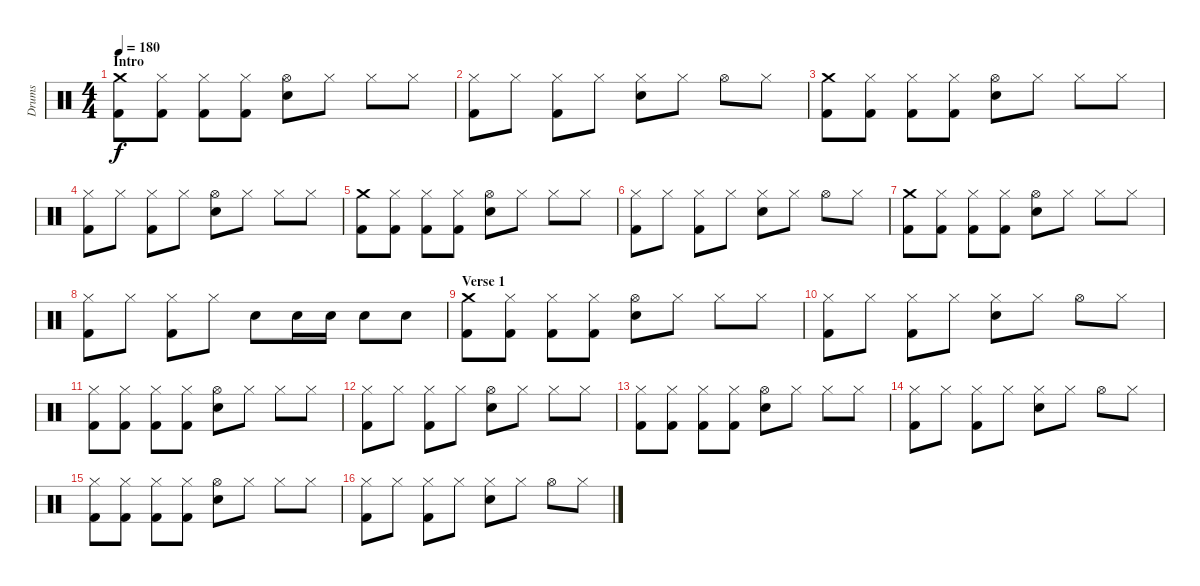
\track ("Drums" "Drums") {instrument percussion}
\staff {score}
\articulation defaults
\ts (4 4)
\section ("" "Intro")
\tempo 180
\clef neutral
\ks c
("Crash medium (hit)" "Kick (hit) 2").8{dy f} ("Hi-Hat (closed)" "Kick (hit) 2").8 ("Hi-Hat (closed)" "Kick (hit) 2").8 ("Hi-Hat (closed)" "Kick (hit) 2").8 ("Hi-Hat (open)" "Electric Snare (hit)").8 "Hi-Hat (closed)".8 "Hi-Hat (closed)".8 "Hi-Hat (closed)".8 |
("Hi-Hat (closed)" "Kick (hit) 2").8 "Hi-Hat (closed)".8 ("Hi-Hat (closed)" "Kick (hit) 2").8 "Hi-Hat (closed)".8 ("Hi-Hat (closed)" "Electric Snare (hit)").8 "Hi-Hat (closed)".8 "Hi-Hat (open)".8 "Hi-Hat (closed)".8 |
("Crash medium (hit)" "Kick (hit) 2").8 ("Hi-Hat (closed)" "Kick (hit) 2").8 ("Hi-Hat (closed)" "Kick (hit) 2").8 ("Hi-Hat (closed)" "Kick (hit) 2").8 ("Hi-Hat (open)" "Electric Snare (hit)").8 "Hi-Hat (closed)".8 "Hi-Hat (closed)".8 "Hi-Hat (closed)".8 |
("Hi-Hat (closed)" "Kick (hit) 2").8 "Hi-Hat (closed)".8 ("Hi-Hat (closed)" "Kick (hit) 2").8 "Hi-Hat (closed)".8 ("Hi-Hat (open)" "Electric Snare (hit)").8 "Hi-Hat (closed)".8 "Hi-Hat (closed)".8 "Hi-Hat (closed)".8 |
("Crash medium (hit)" "Kick (hit) 2").8 ("Hi-Hat (closed)" "Kick (hit) 2").8 ("Hi-Hat (closed)" "Kick (hit) 2").8 ("Hi-Hat (closed)" "Kick (hit) 2").8 ("Hi-Hat (open)" "Electric Snare (hit)").8 "Hi-Hat (closed)".8 "Hi-Hat (closed)".8 "Hi-Hat (closed)".8 |
("Hi-Hat (closed)" "Kick (hit) 2").8 "Hi-Hat (closed)".8 ("Hi-Hat (closed)" "Kick (hit) 2").8 "Hi-Hat (closed)".8 ("Hi-Hat (closed)" "Electric Snare (hit)").8 "Hi-Hat (closed)".8 "Hi-Hat (open)".8 "Hi-Hat (closed)".8 |
("Crash medium (hit)" "Kick (hit) 2").8 ("Hi-Hat (closed)" "Kick (hit) 2").8 ("Hi-Hat (closed)" "Kick (hit) 2").8 ("Hi-Hat (closed)" "Kick (hit) 2").8 ("Hi-Hat (open)" "Electric Snare (hit)").8 "Hi-Hat (closed)".8 "Hi-Hat (closed)".8 "Hi-Hat (closed)".8 |
("Hi-Hat (closed)" "Kick (hit) 2").8 "Hi-Hat (closed)".8 ("Hi-Hat (closed)" "Kick (hit) 2").8 "Hi-Hat (closed)".8 "Snare (hit) 2".8 "Snare (hit) 2".16 "Snare (hit) 2".16 "Snare (hit) 2".8 "Snare (hit) 2".8 |
\section ("" "Verse 1")
("Crash medium (hit)" "Kick (hit) 2").8 ("Hi-Hat (closed)" "Kick (hit) 2").8 ("Hi-Hat (closed)" "Kick (hit) 2").8 ("Hi-Hat (closed)" "Kick (hit) 2").8 ("Hi-Hat (open)" "Electric Snare (hit)").8 "Hi-Hat (closed)".8 "Hi-Hat (closed)".8 "Hi-Hat (closed)".8 |
("Hi-Hat (closed)" "Kick (hit) 2").8 "Hi-Hat (closed)".8 ("Hi-Hat (closed)" "Kick (hit) 2").8 "Hi-Hat (closed)".8 ("Hi-Hat (closed)" "Electric Snare (hit)").8 "Hi-Hat (closed)".8 "Hi-Hat (open)".8 "Hi-Hat (closed)".8 |
("Hi-Hat (closed)" "Kick (hit) 2").8 ("Hi-Hat (closed)" "Kick (hit) 2").8 ("Hi-Hat (closed)" "Kick (hit) 2").8 ("Hi-Hat (closed)" "Kick (hit) 2").8 ("Hi-Hat (open)" "Electric Snare (hit)").8 "Hi-Hat (closed)".8 "Hi-Hat (closed)".8 "Hi-Hat (closed)".8 |
("Hi-Hat (closed)" "Kick (hit) 2").8 "Hi-Hat (closed)".8 ("Hi-Hat (closed)" "Kick (hit) 2").8 "Hi-Hat (closed)".8 ("Hi-Hat (open)" "Electric Snare (hit)").8 "Hi-Hat (closed)".8 "Hi-Hat (closed)".8 "Hi-Hat (closed)".8 |
("Hi-Hat (closed)" "Kick (hit) 2").8 ("Hi-Hat (closed)" "Kick (hit) 2").8 ("Hi-Hat (closed)" "Kick (hit) 2").8 ("Hi-Hat (closed)" "Kick (hit) 2").8 ("Hi-Hat (open)" "Electric Snare (hit)").8 "Hi-Hat (closed)".8 "Hi-Hat (closed)".8 "Hi-Hat (closed)".8 |
("Hi-Hat (closed)" "Kick (hit) 2").8 "Hi-Hat (closed)".8 ("Hi-Hat (closed)" "Kick (hit) 2").8 "Hi-Hat (closed)".8 ("Hi-Hat (closed)" "Electric Snare (hit)").8 "Hi-Hat (closed)".8 "Hi-Hat (open)".8 "Hi-Hat (closed)".8 |
("Hi-Hat (closed)" "Kick (hit) 2").8 ("Hi-Hat (closed)" "Kick (hit) 2").8 ("Hi-Hat (closed)" "Kick (hit) 2").8 ("Hi-Hat (closed)" "Kick (hit) 2").8 ("Hi-Hat (open)" "Electric Snare (hit)").8 "Hi-Hat (closed)".8 "Hi-Hat (closed)".8 "Hi-Hat (closed)".8 |
("Hi-Hat (closed)" "Kick (hit) 2").8 "Hi-Hat (closed)".8 ("Hi-Hat (closed)" "Kick (hit) 2").8 "Hi-Hat (closed)".8 ("Hi-Hat (closed)" "Electric Snare (hit)").8 "Hi-Hat (closed)".8 "Hi-Hat (open)".8 "Hi-Hat (closed)".8
